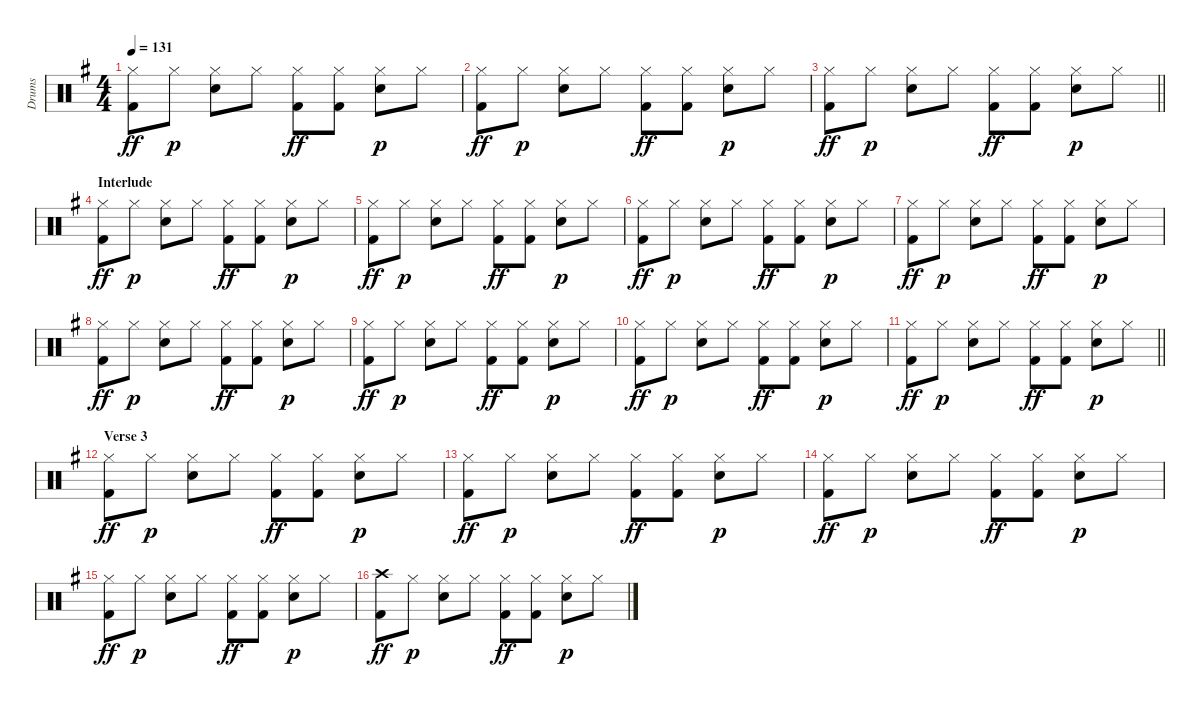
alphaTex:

\track ("Drums" "Drums") {instrument percussion}
\staff {score}
\articulation defaults
\ts (4 4)
\tempo 131
\clef neutral
\ks g
("Hi-Hat (closed)" "Kick (hit) 2").8{dy ff} "Hi-Hat (closed)".8{dy p} ("Hi-Hat (closed)" "Snare (hit) 2").8 "Hi-Hat (closed)".8 ("Hi-Hat (closed)" "Kick (hit) 2").8{dy ff} ("Hi-Hat (closed)" "Kick (hit) 2").8 ("Hi-Hat (closed)" "Snare (hit) 2").8{dy p} "Hi-Hat (closed)".8 |
("Hi-Hat (closed)" "Kick (hit) 2").8{dy ff} "Hi-Hat (closed)".8{dy p} ("Hi-Hat (closed)" "Snare (hit) 2").8 "Hi-Hat (closed)".8 ("Hi-Hat (closed)" "Kick (hit) 2").8{dy ff} ("Hi-Hat (closed)" "Kick (hit) 2").8 ("Hi-Hat (closed)" "Snare (hit) 2").8{dy p} "Hi-Hat (closed)".8 |
\barLineRight lightlight
("Hi-Hat (closed)" "Kick (hit) 2").8{dy ff} "Hi-Hat (closed)".8{dy p} ("Hi-Hat (closed)" "Snare (hit) 2").8 "Hi-Hat (closed)".8 ("Hi-Hat (closed)" "Kick (hit) 2").8{dy ff} ("Hi-Hat (closed)" "Kick (hit) 2").8 ("Hi-Hat (closed)" "Snare (hit) 2").8{dy p} "Hi-Hat (closed)".8 |
\section ("" "Interlude")
("Hi-Hat (closed)" "Kick (hit) 2").8{dy ff} "Hi-Hat (closed)".8{dy p} ("Hi-Hat (closed)" "Snare (hit) 2").8 "Hi-Hat (closed)".8 ("Hi-Hat (closed)" "Kick (hit) 2").8{dy ff} ("Hi-Hat (closed)" "Kick (hit) 2").8 ("Hi-Hat (closed)" "Snare (hit) 2").8{dy p} "Hi-Hat (closed)".8 |
("Hi-Hat (closed)" "Kick (hit) 2").8{dy ff} "Hi-Hat (closed)".8{dy p} ("Hi-Hat (closed)" "Snare (hit) 2").8 "Hi-Hat (closed)".8 ("Hi-Hat (closed)" "Kick (hit) 2").8{dy ff} ("Hi-Hat (closed)" "Kick (hit) 2").8 ("Hi-Hat (closed)" "Snare (hit) 2").8{dy p} "Hi-Hat (closed)".8 |
("Hi-Hat (closed)" "Kick (hit) 2").8{dy ff} "Hi-Hat (closed)".8{dy p} ("Hi-Hat (closed)" "Snare (hit) 2").8 "Hi-Hat (closed)".8 ("Hi-Hat (closed)" "Kick (hit) 2").8{dy ff} ("Hi-Hat (closed)" "Kick (hit) 2").8 ("Hi-Hat (closed)" "Snare (hit) 2").8{dy p} "Hi-Hat (closed)".8 |
("Hi-Hat (closed)" "Kick (hit) 2").8{dy ff} "Hi-Hat (closed)".8{dy p} ("Hi-Hat (closed)" "Snare (hit) 2").8 "Hi-Hat (closed)".8 ("Hi-Hat (closed)" "Kick (hit) 2").8{dy ff} ("Hi-Hat (closed)" "Kick (hit) 2").8 ("Hi-Hat (closed)" "Snare (hit) 2").8{dy p} "Hi-Hat (closed)".8 |
("Hi-Hat (closed)" "Kick (hit) 2").8{dy ff} "Hi-Hat (closed)".8{dy p} ("Hi-Hat (closed)" "Snare (hit) 2").8 "Hi-Hat (closed)".8 ("Hi-Hat (closed)" "Kick (hit) 2").8{dy ff} ("Hi-Hat (closed)" "Kick (hit) 2").8 ("Hi-Hat (closed)" "Snare (hit) 2").8{dy p} "Hi-Hat (closed)".8 |
("Hi-Hat (closed)" "Kick (hit) 2").8{dy ff} "Hi-Hat (closed)".8{dy p} ("Hi-Hat (closed)" "Snare (hit) 2").8 "Hi-Hat (closed)".8 ("Hi-Hat (closed)" "Kick (hit) 2").8{dy ff} ("Hi-Hat (closed)" "Kick (hit) 2").8 ("Hi-Hat (closed)" "Snare (hit) 2").8{dy p} "Hi-Hat (closed)".8 |
("Hi-Hat (closed)" "Kick (hit) 2").8{dy ff} "Hi-Hat (closed)".8{dy p} ("Hi-Hat (closed)" "Snare (hit) 2").8 "Hi-Hat (closed)".8 ("Hi-Hat (closed)" "Kick (hit) 2").8{dy ff} ("Hi-Hat (closed)" "Kick (hit) 2").8 ("Hi-Hat (closed)" "Snare (hit) 2").8{dy p} "Hi-Hat (closed)".8 |
\barLineRight lightlight
("Hi-Hat (closed)" "Kick (hit) 2").8{dy ff} "Hi-Hat (closed)".8{dy p} ("Hi-Hat (closed)" "Snare (hit) 2").8 "Hi-Hat (closed)".8 ("Hi-Hat (closed)" "Kick (hit) 2").8{dy ff} ("Hi-Hat (closed)" "Kick (hit) 2").8 ("Hi-Hat (closed)" "Snare (hit) 2").8{dy p} "Hi-Hat (closed)".8 |
\section ("" "Verse 3")
("Hi-Hat (closed)" "Kick (hit) 2").8{dy ff} "Hi-Hat (closed)".8{dy p} ("Hi-Hat (closed)" "Snare (hit) 2").8 "Hi-Hat (closed)".8 ("Hi-Hat (closed)" "Kick (hit) 2").8{dy ff} ("Hi-Hat (closed)" "Kick (hit) 2").8 ("Hi-Hat (closed)" "Snare (hit) 2").8{dy p} "Hi-Hat (closed)".8 |
("Hi-Hat (closed)" "Kick (hit) 2").8{dy ff} "Hi-Hat (closed)".8{dy p} ("Hi-Hat (closed)" "Snare (hit) 2").8 "Hi-Hat (closed)".8 ("Hi-Hat (closed)" "Kick (hit) 2").8{dy ff} ("Hi-Hat (closed)" "Kick (hit) 2").8 ("Hi-Hat (closed)" "Snare (hit) 2").8{dy p} "Hi-Hat (closed)".8 |
("Hi-Hat (closed)" "Kick (hit) 2").8{dy ff} "Hi-Hat (closed)".8{dy p} ("Hi-Hat (closed)" "Snare (hit) 2").8 "Hi-Hat (closed)".8 ("Hi-Hat (closed)" "Kick (hit) 2").8{dy ff} ("Hi-Hat (closed)" "Kick (hit) 2").8 ("Hi-Hat (closed)" "Snare (hit) 2").8{dy p} "Hi-Hat (closed)".8 |
("Hi-Hat (closed)" "Kick (hit) 2").8{dy ff} "Hi-Hat (closed)".8{dy p} ("Hi-Hat (closed)" "Snare (hit) 2").8 "Hi-Hat (closed)".8 ("Hi-Hat (closed)" "Kick (hit) 2").8{dy ff} ("Hi-Hat (closed)" "Kick (hit) 2").8 ("Hi-Hat (closed)" "Snare (hit) 2").8{dy p} "Hi-Hat (closed)".8 |
("Crash high (hit)" "Kick (hit) 2").8{dy ff} "Hi-Hat (closed)".8{dy p} ("Hi-Hat (closed)" "Snare (hit) 2").8 "Hi-Hat (closed)".8 ("Hi-Hat (closed)" "Kick (hit) 2").8{dy ff} ("Hi-Hat (closed)" "Kick (hit) 2").8 ("Hi-Hat (closed)" "Snare (hit) 2").8{dy p} "Hi-Hat (closed)".8
